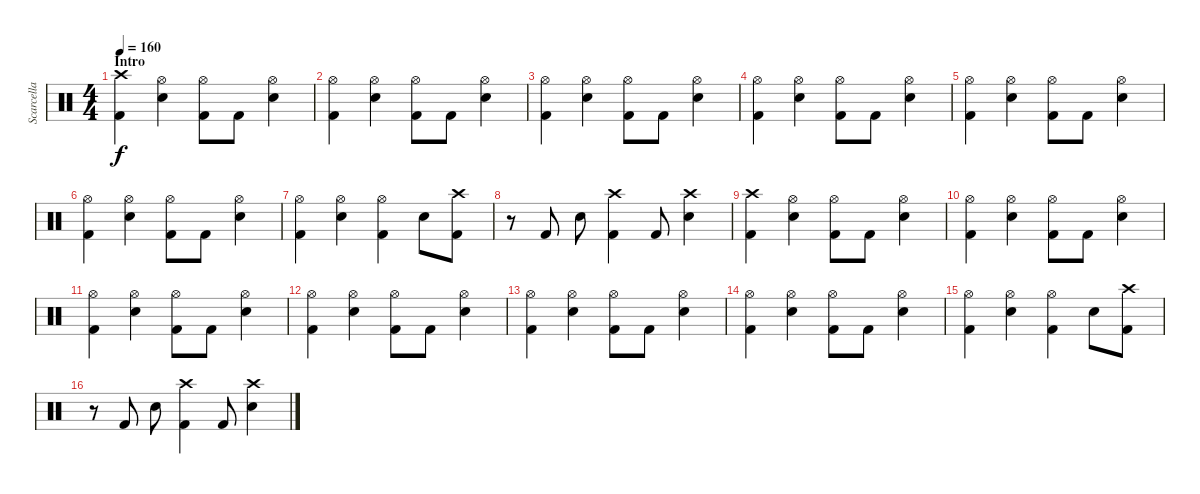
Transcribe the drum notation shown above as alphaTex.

\track ("Scarcella" "Scarcella") {instrument percussion}
\staff {score}
\articulation defaults
\ts (4 4)
\section ("" "Intro")
\tempo 160
\clef neutral
\ks c
("Crash high (hit)" "Kick (hit) 2").4{dy f} ("Hi-Hat (open)" "Snare (hit) 2").4 ("Hi-Hat (open)" "Kick (hit) 2").8 "Kick (hit) 2".8 ("Hi-Hat (open)" "Snare (hit) 2").4 |
("Hi-Hat (open)" "Kick (hit) 2").4 ("Hi-Hat (open)" "Snare (hit) 2").4 ("Hi-Hat (open)" "Kick (hit) 2").8 "Kick (hit) 2".8 ("Hi-Hat (open)" "Snare (hit) 2").4 |
("Hi-Hat (open)" "Kick (hit) 2").4 ("Hi-Hat (open)" "Snare (hit) 2").4 ("Hi-Hat (open)" "Kick (hit) 2").8 "Kick (hit) 2".8 ("Hi-Hat (open)" "Snare (hit) 2").4 |
("Hi-Hat (open)" "Kick (hit) 2").4 ("Hi-Hat (open)" "Snare (hit) 2").4 ("Hi-Hat (open)" "Kick (hit) 2").8 "Kick (hit) 2".8 ("Hi-Hat (open)" "Snare (hit) 2").4 |
("Hi-Hat (open)" "Kick (hit) 2").4 ("Hi-Hat (open)" "Snare (hit) 2").4 ("Hi-Hat (open)" "Kick (hit) 2").8 "Kick (hit) 2".8 ("Hi-Hat (open)" "Snare (hit) 2").4 |
("Hi-Hat (open)" "Kick (hit) 2").4 ("Hi-Hat (open)" "Snare (hit) 2").4 ("Hi-Hat (open)" "Kick (hit) 2").8 "Kick (hit) 2".8 ("Hi-Hat (open)" "Snare (hit) 2").4 |
("Hi-Hat (open)" "Kick (hit) 2").4 ("Hi-Hat (open)" "Snare (hit) 2").4 ("Hi-Hat (open)" "Kick (hit) 2").4 "Snare (hit) 2".8 ("Crash high (hit)" "Kick (hit) 2").8 |
r.8 "Kick (hit) 2".8 "Snare (hit) 2".8 ("Crash high (hit)" "Kick (hit) 2").4 "Kick (hit) 2".8 ("Crash high (hit)" "Snare (hit) 2").4 |
("Crash high (hit)" "Kick (hit) 2").4 ("Hi-Hat (open)" "Snare (hit) 2").4 ("Hi-Hat (open)" "Kick (hit) 2").8 "Kick (hit) 2".8 ("Hi-Hat (open)" "Snare (hit) 2").4 |
("Hi-Hat (open)" "Kick (hit) 2").4 ("Hi-Hat (open)" "Snare (hit) 2").4 ("Hi-Hat (open)" "Kick (hit) 2").8 "Kick (hit) 2".8 ("Hi-Hat (open)" "Snare (hit) 2").4 |
("Hi-Hat (open)" "Kick (hit) 2").4 ("Hi-Hat (open)" "Snare (hit) 2").4 ("Hi-Hat (open)" "Kick (hit) 2").8 "Kick (hit) 2".8 ("Hi-Hat (open)" "Snare (hit) 2").4 |
("Hi-Hat (open)" "Kick (hit) 2").4 ("Hi-Hat (open)" "Snare (hit) 2").4 ("Hi-Hat (open)" "Kick (hit) 2").8 "Kick (hit) 2".8 ("Hi-Hat (open)" "Snare (hit) 2").4 |
("Hi-Hat (open)" "Kick (hit) 2").4 ("Hi-Hat (open)" "Snare (hit) 2").4 ("Hi-Hat (open)" "Kick (hit) 2").8 "Kick (hit) 2".8 ("Hi-Hat (open)" "Snare (hit) 2").4 |
("Hi-Hat (open)" "Kick (hit) 2").4 ("Hi-Hat (open)" "Snare (hit) 2").4 ("Hi-Hat (open)" "Kick (hit) 2").8 "Kick (hit) 2".8 ("Hi-Hat (open)" "Snare (hit) 2").4 |
("Hi-Hat (open)" "Kick (hit) 2").4 ("Hi-Hat (open)" "Snare (hit) 2").4 ("Hi-Hat (open)" "Kick (hit) 2").4 "Snare (hit) 2".8 ("Crash high (hit)" "Kick (hit) 2").8 |
r.8 "Kick (hit) 2".8 "Snare (hit) 2".8 ("Crash high (hit)" "Kick (hit) 2").4 "Kick (hit) 2".8 ("Crash high (hit)" "Snare (hit) 2").4
